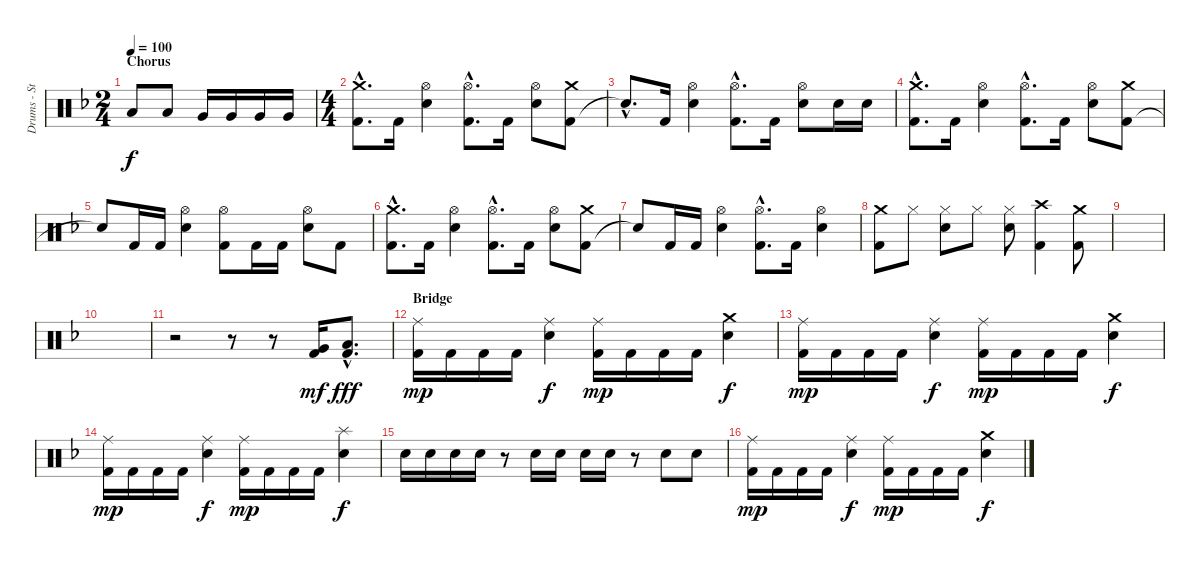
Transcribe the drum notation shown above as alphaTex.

\track ("Drums - Steve Wacholz" "Drums - St") {instrument percussion}
\staff {score}
\articulation defaults
\ts (2 4)
\section ("" "Chorus")
\tempo 100
\clef neutral
\ks f "Low Tom (hit)".8{dy f} "Low Tom (hit)".8 "Very Low Tom (hit)".16 "Very Low Tom (hit)".16 "Very Low Tom (hit)".16 "Very Low Tom (hit)".16
|
\ts (4 4)
("Kick (hit) 2"{hac} "Crash medium (hit)"{hac}).8{d} "Kick (hit) 2".16 ("Electric Snare (hit)" "Hi-Hat (open)").4 ("Kick (hit) 2"{hac} "Hi-Hat (open)"{hac}).8{d} "Kick (hit) 2".16 ("Electric Snare (hit)" "Hi-Hat (open)").8 ("Kick (hit) 2" "Crash medium (hit)").8 |
"Snare (hit)"{hac t}.8{d} "Kick (hit) 2".16 ("Electric Snare (hit)" "Hi-Hat (open)").4 ("Kick (hit) 2"{hac} "Hi-Hat (open)"{hac}).8{d} "Kick (hit) 2".16 ("Electric Snare (hit)" "Hi-Hat (open)").8 "Electric Snare (hit)".16 "Electric Snare (hit)".16 |
("Kick (hit) 2"{hac} "Crash medium (hit)"{hac}).8{d} "Kick (hit) 2".16 ("Electric Snare (hit)" "Hi-Hat (open)").4 ("Kick (hit) 2"{hac} "Hi-Hat (open)"{hac}).8{d} "Kick (hit) 2".16 ("Electric Snare (hit)" "Hi-Hat (open)").8 ("Kick (hit) 2" "Crash medium (hit)").8 |
"Snare (hit)"{t}.8 "Kick (hit) 2".16 "Kick (hit) 2".16 ("Electric Snare (hit)" "Hi-Hat (open)").4 ("Kick (hit) 2" "Hi-Hat (open)").8 "Kick (hit) 2".16 "Kick (hit) 2".16 ("Electric Snare (hit)" "Hi-Hat (open)").8 "Kick (hit) 2".8 |
("Kick (hit) 2"{hac} "Crash medium (hit)"{hac}).8{d} "Kick (hit) 2".16 ("Electric Snare (hit)" "Hi-Hat (open)").4 ("Kick (hit) 2"{hac} "Hi-Hat (open)"{hac}).8{d} "Kick (hit) 2".16 ("Electric Snare (hit)" "Hi-Hat (open)").8 ("Kick (hit) 2" "Crash medium (hit)").8 |
"Snare (hit)"{t}.8 "Kick (hit) 2".16 "Kick (hit) 2".16 ("Electric Snare (hit)" "Hi-Hat (open)").4 ("Kick (hit) 2"{hac} "Hi-Hat (open)"{hac}).8{d} "Kick (hit) 2".16 ("Electric Snare (hit)" "Hi-Hat (open)").4 |
("Kick (hit) 2" "Crash medium (hit)").8 "Hi-Hat (closed)".8 ("Electric Snare (hit)" "Hi-Hat (closed)").8 "Hi-Hat (closed)".8 ("Electric Snare (hit)" "Hi-Hat (closed)").8 ("Kick (hit) 2" "Crash high (hit)").4 ("Kick (hit) 2" "Crash medium (hit)").8 |
|
|
r.2 r.8 r.8 ("Kick (hit) 2" "Very Low Tom (hit)").16{dy mf} ("Kick (hit) 2"{hac} "Low Tom (hit)"{hac}).8{d dy fff} |
\section ("" "Bridge")
("Kick (hit) 2" "Ride (middle)").16{dy mp} "Kick (hit) 2".16 "Kick (hit) 2".16 "Kick (hit) 2".16 ("Electric Snare (hit)" "Ride (middle)").4{dy f} ("Kick (hit) 2" "Ride (middle)").16{dy mp} "Kick (hit) 2".16 "Kick (hit) 2".16 "Kick (hit) 2".16 ("Electric Snare (hit)" "Crash medium (hit)").4{dy f} |
("Kick (hit) 2" "Ride (middle)").16{dy mp} "Kick (hit) 2".16 "Kick (hit) 2".16 "Kick (hit) 2".16 ("Electric Snare (hit)" "Ride (middle)").4{dy f} ("Kick (hit) 2" "Ride (middle)").16{dy mp} "Kick (hit) 2".16 "Kick (hit) 2".16 "Kick (hit) 2".16 ("Electric Snare (hit)" "Crash medium (hit)").4{dy f} |
("Kick (hit) 2" "Ride (middle)").16{dy mp} "Kick (hit) 2".16 "Kick (hit) 2".16 "Kick (hit) 2".16 ("Electric Snare (hit)" "Ride (middle)").4{dy f} ("Kick (hit) 2" "Ride (middle)").16{dy mp} "Kick (hit) 2".16 "Kick (hit) 2".16 "Kick (hit) 2".16 ("Electric Snare (hit)" "Splash (hit)").4{dy f} |
"Electric Snare (hit)".16 "Electric Snare (hit)".16 "Electric Snare (hit)".16 "Electric Snare (hit)".16 r.8 "Electric Snare (hit)".16 "Electric Snare (hit)".16 "Electric Snare (hit)".16 "Electric Snare (hit)".16 r.8 "Electric Snare (hit)".8 "Electric Snare (hit)".8 |
("Kick (hit) 2" "Ride (middle)").16{dy mp} "Kick (hit) 2".16 "Kick (hit) 2".16 "Kick (hit) 2".16 ("Electric Snare (hit)" "Ride (middle)").4{dy f} ("Kick (hit) 2" "Ride (middle)").16{dy mp} "Kick (hit) 2".16 "Kick (hit) 2".16 "Kick (hit) 2".16 ("Electric Snare (hit)" "Crash medium (hit)").4{dy f}
